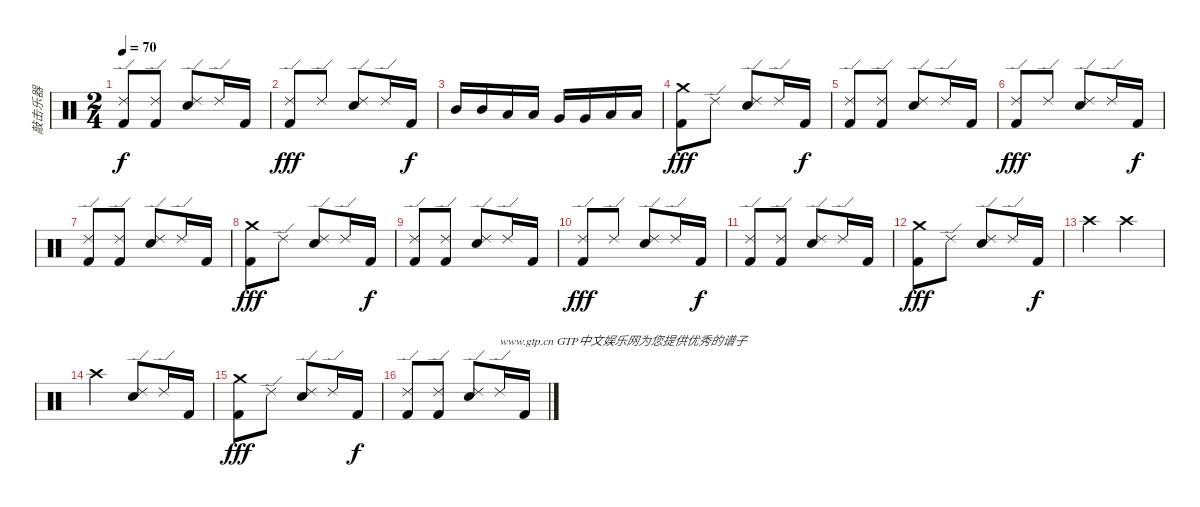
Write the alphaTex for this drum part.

\track ("敲击乐器" "敲击乐器") {instrument percussion}
\staff {score}
\articulation defaults
\ts (2 4)
\tempo 70
\clef neutral
\ks c
("Ride (edge) 2" "Kick (hit) 2").8{dy f} ("Ride (edge) 2" "Kick (hit) 2").8 ("Ride (edge) 2" "Snare (hit) 2").8 "Ride (edge) 2".16 "Kick (hit) 2".16 |
("Ride (edge) 2" "Kick (hit) 2").8{dy fff} "Ride (edge) 2".8 ("Ride (edge) 2" "Snare (hit) 2").8 "Ride (edge) 2".16 "Kick (hit) 2".16{dy f} |
"Mid Tom (hit)".16 "Mid Tom (hit)".16 "Low Tom (hit)".16 "Low Tom (hit)".16 "Very Low Tom (hit)".16 "Very Low Tom (hit)".16 "Low Floor Tom (hit)".16 "Low Floor Tom (hit)".16 |
("Crash medium (hit)" "Kick (hit) 2").8{dy fff} "Ride (edge) 2".8 ("Ride (edge) 2" "Snare (hit) 2").8 "Ride (edge) 2".16 "Kick (hit) 2".16{dy f} |
("Ride (edge) 2" "Kick (hit) 2").8 ("Ride (edge) 2" "Kick (hit) 2").8 ("Ride (edge) 2" "Snare (hit) 2").8 "Ride (edge) 2".16 "Kick (hit) 2".16 |
("Ride (edge) 2" "Kick (hit) 2").8{dy fff} "Ride (edge) 2".8 ("Ride (edge) 2" "Snare (hit) 2").8 "Ride (edge) 2".16 "Kick (hit) 2".16{dy f} |
("Ride (edge) 2" "Kick (hit) 2").8 ("Ride (edge) 2" "Kick (hit) 2").8 ("Ride (edge) 2" "Snare (hit) 2").8 "Ride (edge) 2".16 "Kick (hit) 2".16 |
("Crash medium (hit)" "Kick (hit) 2").8{dy fff} "Ride (edge) 2".8 ("Ride (edge) 2" "Snare (hit) 2").8 "Ride (edge) 2".16 "Kick (hit) 2".16{dy f} |
("Ride (edge) 2" "Kick (hit) 2").8 ("Ride (edge) 2" "Kick (hit) 2").8 ("Ride (edge) 2" "Snare (hit) 2").8 "Ride (edge) 2".16 "Kick (hit) 2".16 |
("Ride (edge) 2" "Kick (hit) 2").8{dy fff} "Ride (edge) 2".8 ("Ride (edge) 2" "Snare (hit) 2").8 "Ride (edge) 2".16 "Kick (hit) 2".16{dy f} |
("Ride (edge) 2" "Kick (hit) 2").8 ("Ride (edge) 2" "Kick (hit) 2").8 ("Ride (edge) 2" "Snare (hit) 2").8 "Ride (edge) 2".16 "Kick (hit) 2".16 |
("Crash medium (hit)" "Kick (hit) 2").8{dy fff} "Ride (edge) 2".8 ("Ride (edge) 2" "Snare (hit) 2").8 "Ride (edge) 2".16 "Kick (hit) 2".16{dy f} |
"Crash high (hit)".4 "Crash high (hit)".4 |
"Crash high (hit)".4 ("Ride (edge) 2" "Snare (hit) 2").8 "Ride (edge) 2".16 "Kick (hit) 2".16 |
("Crash medium (hit)" "Kick (hit) 2").8{dy fff} "Ride (edge) 2".8 ("Ride (edge) 2" "Snare (hit) 2").8 "Ride (edge) 2".16 "Kick (hit) 2".16{dy f} |
("Ride (edge) 2" "Kick (hit) 2").8 ("Ride (edge) 2" "Kick (hit) 2").8 ("Ride (edge) 2" "Snare (hit) 2").8 "Ride (edge) 2".16{txt "www.gtp.cn GTP中文娱乐网为您提供优秀的谱子"} "Kick (hit) 2".16
